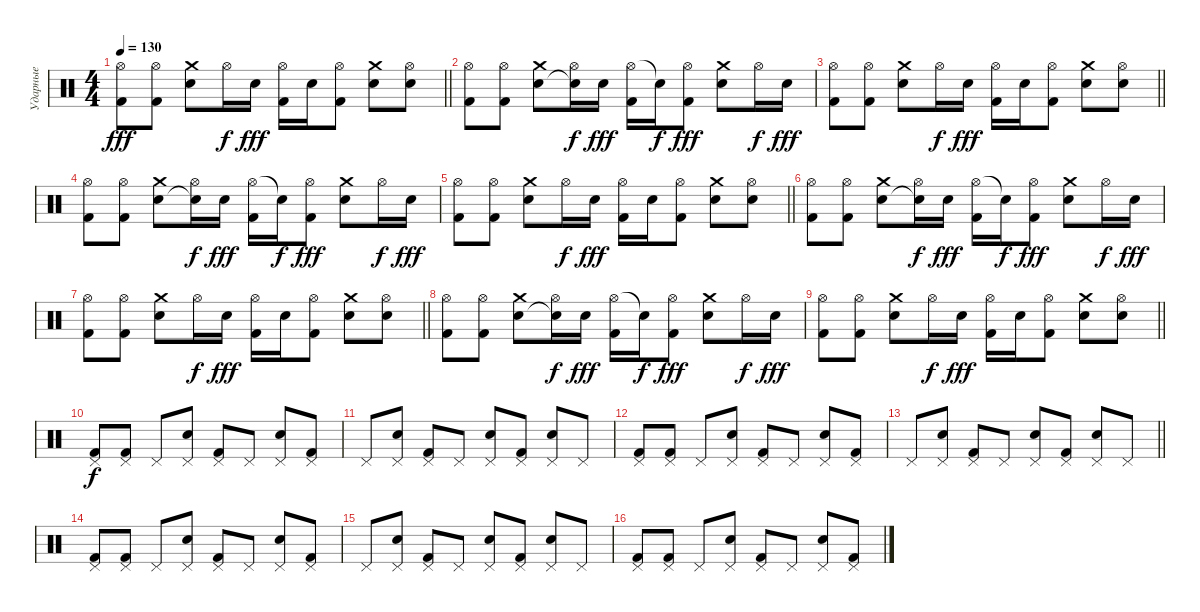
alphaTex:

\track ("Ударные" "Ударные") {instrument percussion}
\staff {score}
\articulation defaults
\ts (4 4)
\tempo 130
\clef neutral
\barLineRight lightlight
\ks c
("Hi-Hat (open)" "Kick (hit) 2").8{dy fff} ("Hi-Hat (open)" "Kick (hit) 2").8 ("Crash medium (hit)" "Electric Snare (hit)").8 "Hi-Hat (open)".16{dy f} "Electric Snare (hit)".16{dy fff} ("Hi-Hat (open)" "Kick (hit) 2").16 "Electric Snare (hit)".16 ("Hi-Hat (open)" "Kick (hit) 2").8 ("Crash medium (hit)" "Electric Snare (hit)").8 ("Hi-Hat (open)" "Electric Snare (hit)").8 |
("Hi-Hat (open)" "Kick (hit) 2").8 ("Hi-Hat (open)" "Kick (hit) 2").8 ("Crash medium (hit)" "Electric Snare (hit)").8 ("Hi-Hat (open)" "Snare (hit)"{t}).16{dy f} "Electric Snare (hit)".16{dy fff} ("Hi-Hat (open)" "Kick (hit) 2").16 "Snare (hit)"{t}.16{dy f} ("Hi-Hat (open)" "Kick (hit) 2").8{dy fff} ("Crash medium (hit)" "Electric Snare (hit)").8 "Hi-Hat (open)".16{dy f} "Electric Snare (hit)".16{dy fff} |
\barLineRight lightlight
("Hi-Hat (open)" "Kick (hit) 2").8 ("Hi-Hat (open)" "Kick (hit) 2").8 ("Crash medium (hit)" "Electric Snare (hit)").8 "Hi-Hat (open)".16{dy f} "Electric Snare (hit)".16{dy fff} ("Hi-Hat (open)" "Kick (hit) 2").16 "Electric Snare (hit)".16 ("Hi-Hat (open)" "Kick (hit) 2").8 ("Crash medium (hit)" "Electric Snare (hit)").8 ("Hi-Hat (open)" "Electric Snare (hit)").8 |
("Hi-Hat (open)" "Kick (hit) 2").8 ("Hi-Hat (open)" "Kick (hit) 2").8 ("Crash medium (hit)" "Electric Snare (hit)").8 ("Hi-Hat (open)" "Snare (hit)"{t}).16{dy f} "Electric Snare (hit)".16{dy fff} ("Hi-Hat (open)" "Kick (hit) 2").16 "Snare (hit)"{t}.16{dy f} ("Hi-Hat (open)" "Kick (hit) 2").8{dy fff} ("Crash medium (hit)" "Electric Snare (hit)").8 "Hi-Hat (open)".16{dy f} "Electric Snare (hit)".16{dy fff} |
\barLineRight lightlight
("Hi-Hat (open)" "Kick (hit) 2").8 ("Hi-Hat (open)" "Kick (hit) 2").8 ("Crash medium (hit)" "Electric Snare (hit)").8 "Hi-Hat (open)".16{dy f} "Electric Snare (hit)".16{dy fff} ("Hi-Hat (open)" "Kick (hit) 2").16 "Electric Snare (hit)".16 ("Hi-Hat (open)" "Kick (hit) 2").8 ("Crash medium (hit)" "Electric Snare (hit)").8 ("Hi-Hat (open)" "Electric Snare (hit)").8 |
("Hi-Hat (open)" "Kick (hit) 2").8 ("Hi-Hat (open)" "Kick (hit) 2").8 ("Crash medium (hit)" "Electric Snare (hit)").8 ("Hi-Hat (open)" "Snare (hit)"{t}).16{dy f} "Electric Snare (hit)".16{dy fff} ("Hi-Hat (open)" "Kick (hit) 2").16 "Snare (hit)"{t}.16{dy f} ("Hi-Hat (open)" "Kick (hit) 2").8{dy fff} ("Crash medium (hit)" "Electric Snare (hit)").8 "Hi-Hat (open)".16{dy f} "Electric Snare (hit)".16{dy fff} |
\barLineRight lightlight
("Hi-Hat (open)" "Kick (hit) 2").8 ("Hi-Hat (open)" "Kick (hit) 2").8 ("Crash medium (hit)" "Electric Snare (hit)").8 "Hi-Hat (open)".16{dy f} "Electric Snare (hit)".16{dy fff} ("Hi-Hat (open)" "Kick (hit) 2").16 "Electric Snare (hit)".16 ("Hi-Hat (open)" "Kick (hit) 2").8 ("Crash medium (hit)" "Electric Snare (hit)").8 ("Hi-Hat (open)" "Electric Snare (hit)").8 |
("Hi-Hat (open)" "Kick (hit) 2").8 ("Hi-Hat (open)" "Kick (hit) 2").8 ("Crash medium (hit)" "Electric Snare (hit)").8 ("Hi-Hat (open)" "Snare (hit)"{t}).16{dy f} "Electric Snare (hit)".16{dy fff} ("Hi-Hat (open)" "Kick (hit) 2").16 "Snare (hit)"{t}.16{dy f} ("Hi-Hat (open)" "Kick (hit) 2").8{dy fff} ("Crash medium (hit)" "Electric Snare (hit)").8 "Hi-Hat (open)".16{dy f} "Electric Snare (hit)".16{dy fff} |
\barLineRight lightlight
("Hi-Hat (open)" "Kick (hit) 2").8 ("Hi-Hat (open)" "Kick (hit) 2").8 ("Crash medium (hit)" "Electric Snare (hit)").8 "Hi-Hat (open)".16{dy f} "Electric Snare (hit)".16{dy fff} ("Hi-Hat (open)" "Kick (hit) 2").16 "Electric Snare (hit)".16 ("Hi-Hat (open)" "Kick (hit) 2").8 ("Crash medium (hit)" "Electric Snare (hit)").8 ("Hi-Hat (open)" "Electric Snare (hit)").8 |
("Pedal Hi-Hat (hit)" "Kick (hit) 2").8{dy f} ("Pedal Hi-Hat (hit)" "Kick (hit) 2").8 "Pedal Hi-Hat (hit)".8 ("Pedal Hi-Hat (hit)" "Electric Snare (hit)").8 ("Pedal Hi-Hat (hit)" "Kick (hit) 2").8 "Pedal Hi-Hat (hit)".8 ("Pedal Hi-Hat (hit)" "Electric Snare (hit)").8 ("Pedal Hi-Hat (hit)" "Kick (hit) 2").8 |
"Pedal Hi-Hat (hit)".8 ("Pedal Hi-Hat (hit)" "Electric Snare (hit)").8 ("Pedal Hi-Hat (hit)" "Kick (hit) 2").8 "Pedal Hi-Hat (hit)".8 ("Pedal Hi-Hat (hit)" "Electric Snare (hit)").8 ("Pedal Hi-Hat (hit)" "Kick (hit) 2").8 ("Pedal Hi-Hat (hit)" "Electric Snare (hit)").8 "Pedal Hi-Hat (hit)".8 |
("Pedal Hi-Hat (hit)" "Kick (hit) 2").8 ("Pedal Hi-Hat (hit)" "Kick (hit) 2").8 "Pedal Hi-Hat (hit)".8 ("Pedal Hi-Hat (hit)" "Electric Snare (hit)").8 ("Pedal Hi-Hat (hit)" "Kick (hit) 2").8 "Pedal Hi-Hat (hit)".8 ("Pedal Hi-Hat (hit)" "Electric Snare (hit)").8 ("Pedal Hi-Hat (hit)" "Kick (hit) 2").8 |
\barLineRight lightlight "Pedal Hi-Hat (hit)".8
("Pedal Hi-Hat (hit)" "Electric Snare (hit)").8 ("Pedal Hi-Hat (hit)" "Kick (hit) 2").8 "Pedal Hi-Hat (hit)".8 ("Pedal Hi-Hat (hit)" "Electric Snare (hit)").8 ("Pedal Hi-Hat (hit)" "Kick (hit) 2").8 ("Pedal Hi-Hat (hit)" "Electric Snare (hit)").8 "Pedal Hi-Hat (hit)".8 |
("Pedal Hi-Hat (hit)" "Kick (hit) 2").8 ("Pedal Hi-Hat (hit)" "Kick (hit) 2").8 "Pedal Hi-Hat (hit)".8 ("Pedal Hi-Hat (hit)" "Electric Snare (hit)").8 ("Pedal Hi-Hat (hit)" "Kick (hit) 2").8 "Pedal Hi-Hat (hit)".8 ("Pedal Hi-Hat (hit)" "Electric Snare (hit)").8 ("Pedal Hi-Hat (hit)" "Kick (hit) 2").8 |
"Pedal Hi-Hat (hit)".8 ("Pedal Hi-Hat (hit)" "Electric Snare (hit)").8 ("Pedal Hi-Hat (hit)" "Kick (hit) 2").8 "Pedal Hi-Hat (hit)".8 ("Pedal Hi-Hat (hit)" "Electric Snare (hit)").8 ("Pedal Hi-Hat (hit)" "Kick (hit) 2").8 ("Pedal Hi-Hat (hit)" "Electric Snare (hit)").8 "Pedal Hi-Hat (hit)".8 |
("Pedal Hi-Hat (hit)" "Kick (hit) 2").8 ("Pedal Hi-Hat (hit)" "Kick (hit) 2").8 "Pedal Hi-Hat (hit)".8 ("Pedal Hi-Hat (hit)" "Electric Snare (hit)").8 ("Pedal Hi-Hat (hit)" "Kick (hit) 2").8 "Pedal Hi-Hat (hit)".8 ("Pedal Hi-Hat (hit)" "Electric Snare (hit)").8 ("Pedal Hi-Hat (hit)" "Kick (hit) 2").8
